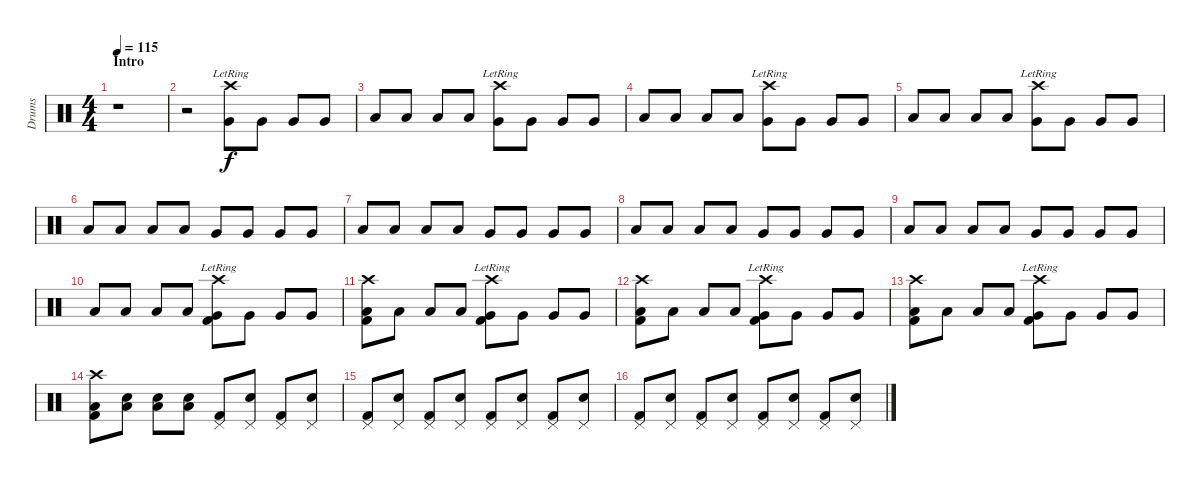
\track ("Drums" "Drums") {instrument percussion}
\staff {score}
\articulation defaults
\ts (4 4)
\section ("" "Intro")
\tempo 115
\clef neutral
\ks c
r.1{dy f} |
r.2 ("Crash high (hit)"{lr} "Very Low Tom (hit)").8 "Very Low Tom (hit)".8 "Very Low Tom (hit)".8 "Very Low Tom (hit)".8 |
"Low Tom (hit)".8 "Low Tom (hit)".8 "Low Tom (hit)".8 "Low Tom (hit)".8 ("Very Low Tom (hit)" "Crash high (hit)"{lr}).8 "Very Low Tom (hit)".8 "Very Low Tom (hit)".8 "Very Low Tom (hit)".8 |
"Low Tom (hit)".8 "Low Tom (hit)".8 "Low Tom (hit)".8 "Low Tom (hit)".8 ("Very Low Tom (hit)" "Crash high (hit)"{lr}).8 "Very Low Tom (hit)".8 "Very Low Tom (hit)".8 "Very Low Tom (hit)".8 |
"Low Tom (hit)".8 "Low Tom (hit)".8 "Low Tom (hit)".8 "Low Tom (hit)".8 ("Very Low Tom (hit)" "Crash high (hit)"{lr}).8 "Very Low Tom (hit)".8 "Very Low Tom (hit)".8 "Very Low Tom (hit)".8 |
"Low Tom (hit)".8 "Low Tom (hit)".8 "Low Tom (hit)".8 "Low Tom (hit)".8 "Very Low Tom (hit)".8 "Very Low Tom (hit)".8 "Very Low Tom (hit)".8 "Very Low Tom (hit)".8 |
"Low Tom (hit)".8 "Low Tom (hit)".8 "Low Tom (hit)".8 "Low Tom (hit)".8 "Very Low Tom (hit)".8 "Very Low Tom (hit)".8 "Very Low Tom (hit)".8 "Very Low Tom (hit)".8 |
"Low Tom (hit)".8 "Low Tom (hit)".8 "Low Tom (hit)".8 "Low Tom (hit)".8 "Very Low Tom (hit)".8 "Very Low Tom (hit)".8 "Very Low Tom (hit)".8 "Very Low Tom (hit)".8 |
"Low Tom (hit)".8 "Low Tom (hit)".8 "Low Tom (hit)".8 "Low Tom (hit)".8 "Very Low Tom (hit)".8 "Very Low Tom (hit)".8 "Very Low Tom (hit)".8 "Very Low Tom (hit)".8 |
"Low Tom (hit)".8 "Low Tom (hit)".8 "Low Tom (hit)".8 "Low Tom (hit)".8 ("Kick (hit) 2" "Very Low Tom (hit)" "Crash high (hit)"{lr}).8 "Very Low Tom (hit)".8 "Very Low Tom (hit)".8 "Very Low Tom (hit)".8 |
("Kick (hit) 2" "Low Tom (hit)" "Crash high (hit)").8 "Low Tom (hit)".8 "Low Tom (hit)".8 "Low Tom (hit)".8 ("Kick (hit) 2" "Very Low Tom (hit)" "Crash high (hit)"{lr}).8 "Very Low Tom (hit)".8 "Very Low Tom (hit)".8 "Very Low Tom (hit)".8 |
("Kick (hit) 2" "Low Tom (hit)" "Crash high (hit)").8 "Low Tom (hit)".8 "Low Tom (hit)".8 "Low Tom (hit)".8 ("Kick (hit) 2" "Very Low Tom (hit)" "Crash high (hit)"{lr}).8 "Very Low Tom (hit)".8 "Very Low Tom (hit)".8 "Very Low Tom (hit)".8 |
("Kick (hit) 2" "Low Tom (hit)" "Crash high (hit)").8 "Low Tom (hit)".8 "Low Tom (hit)".8 "Low Tom (hit)".8 ("Kick (hit) 2" "Very Low Tom (hit)" "Crash high (hit)"{lr}).8 "Very Low Tom (hit)".8 "Very Low Tom (hit)".8 "Very Low Tom (hit)".8 |
("Kick (hit) 2" "Low Tom (hit)" "Crash high (hit)").8 ("Low Tom (hit)" "Snare (hit) 2").8 ("Low Tom (hit)" "Snare (hit) 2").8 ("Low Tom (hit)" "Snare (hit) 2").8 ("Kick (hit) 2" "Pedal Hi-Hat (hit)").8 ("Snare (hit) 2" "Pedal Hi-Hat (hit)").8 ("Kick (hit) 2" "Pedal Hi-Hat (hit)").8 ("Snare (hit) 2" "Pedal Hi-Hat (hit)").8 |
("Kick (hit) 2" "Pedal Hi-Hat (hit)").8 ("Snare (hit) 2" "Pedal Hi-Hat (hit)").8 ("Kick (hit) 2" "Pedal Hi-Hat (hit)").8 ("Snare (hit) 2" "Pedal Hi-Hat (hit)").8 ("Kick (hit) 2" "Pedal Hi-Hat (hit)").8 ("Snare (hit) 2" "Pedal Hi-Hat (hit)").8 ("Kick (hit) 2" "Pedal Hi-Hat (hit)").8 ("Snare (hit) 2" "Pedal Hi-Hat (hit)").8 |
("Kick (hit) 2" "Pedal Hi-Hat (hit)").8 ("Snare (hit) 2" "Pedal Hi-Hat (hit)").8 ("Kick (hit) 2" "Pedal Hi-Hat (hit)").8 ("Snare (hit) 2" "Pedal Hi-Hat (hit)").8 ("Kick (hit) 2" "Pedal Hi-Hat (hit)").8 ("Snare (hit) 2" "Pedal Hi-Hat (hit)").8 ("Kick (hit) 2" "Pedal Hi-Hat (hit)").8 ("Snare (hit) 2" "Pedal Hi-Hat (hit)").8
